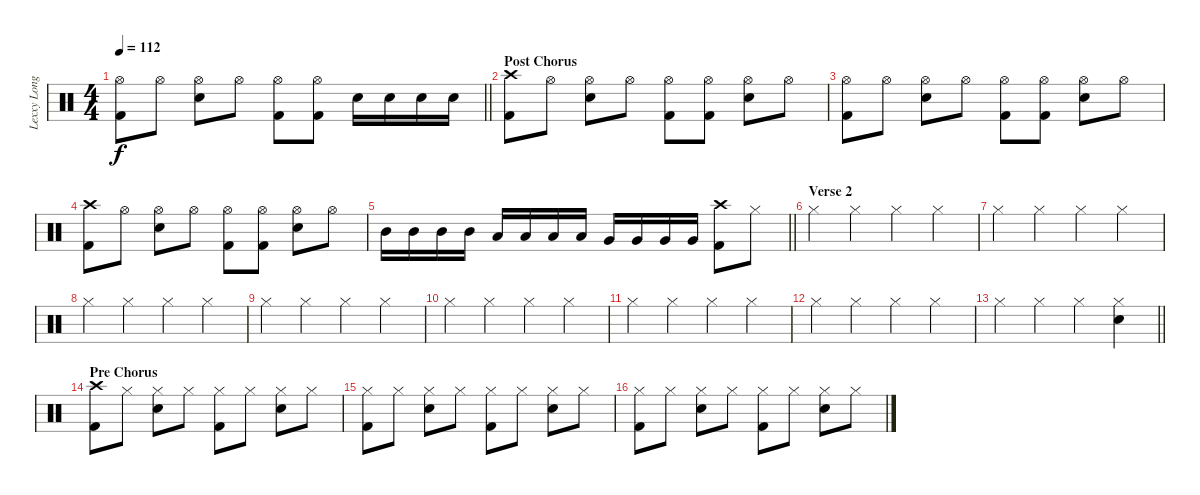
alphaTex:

\track ("Lexxy Longlegz (Chuto)" "Lexxy Long") {instrument percussion}
\staff {score}
\articulation defaults
\ts (4 4)
\tempo 112
\clef neutral
\barLineRight lightlight
\ks c
("Hi-Hat (open)" "Kick (hit) 2").8{dy f} "Hi-Hat (open)".8 ("Hi-Hat (open)" "Snare (hit) 2").8 "Hi-Hat (open)".8 ("Hi-Hat (open)" "Kick (hit) 2").8 ("Hi-Hat (open)" "Kick (hit) 2").8 "Snare (hit) 2".16 "Snare (hit) 2".16 "Snare (hit) 2".16 "Snare (hit) 2".16 |
\section ("" "Post Chorus")
("Crash high (hit)" "Kick (hit) 2").8 "Hi-Hat (open)".8 ("Hi-Hat (open)" "Snare (hit) 2").8 "Hi-Hat (open)".8 ("Hi-Hat (open)" "Kick (hit) 2").8 ("Hi-Hat (open)" "Kick (hit) 2").8 ("Hi-Hat (open)" "Snare (hit) 2").8 "Hi-Hat (open)".8 |
("Hi-Hat (open)" "Kick (hit) 2").8 "Hi-Hat (open)".8 ("Hi-Hat (open)" "Snare (hit) 2").8 "Hi-Hat (open)".8 ("Hi-Hat (open)" "Kick (hit) 2").8 ("Hi-Hat (open)" "Kick (hit) 2").8 ("Hi-Hat (open)" "Snare (hit) 2").8 "Hi-Hat (open)".8 |
("Crash high (hit)" "Kick (hit) 2").8 "Hi-Hat (open)".8 ("Hi-Hat (open)" "Snare (hit) 2").8 "Hi-Hat (open)".8 ("Hi-Hat (open)" "Kick (hit) 2").8 ("Hi-Hat (open)" "Kick (hit) 2").8 ("Hi-Hat (open)" "Snare (hit) 2").8 "Hi-Hat (open)".8 |
\barLineRight lightlight "Mid Tom (hit)".16 "Mid Tom (hit)".16 "Mid Tom (hit)".16 "Mid Tom (hit)".16 "Low Tom (hit)".16 "Low Tom (hit)".16 "Low Tom (hit)".16 "Low Tom (hit)".16 "Very Low Tom (hit)".16 "Very Low Tom (hit)".16 "Very Low Tom (hit)".16 "Very Low Tom (hit)".16
("Crash high (hit)" "Kick (hit) 2").8 "Hi-Hat (closed)".8 |
\section ("" "Verse 2")
"Hi-Hat (closed)".4 "Hi-Hat (closed)".4 "Hi-Hat (closed)".4 "Hi-Hat (closed)".4 |
"Hi-Hat (closed)".4 "Hi-Hat (closed)".4 "Hi-Hat (closed)".4 "Hi-Hat (closed)".4 |
"Hi-Hat (closed)".4 "Hi-Hat (closed)".4 "Hi-Hat (closed)".4 "Hi-Hat (closed)".4 |
"Hi-Hat (closed)".4 "Hi-Hat (closed)".4 "Hi-Hat (closed)".4 "Hi-Hat (closed)".4 |
"Hi-Hat (closed)".4 "Hi-Hat (closed)".4 "Hi-Hat (closed)".4 "Hi-Hat (closed)".4 |
"Hi-Hat (closed)".4 "Hi-Hat (closed)".4 "Hi-Hat (closed)".4 "Hi-Hat (closed)".4 |
"Hi-Hat (closed)".4 "Hi-Hat (closed)".4 "Hi-Hat (closed)".4 "Hi-Hat (closed)".4 |
\barLineRight lightlight "Hi-Hat (closed)".4 "Hi-Hat (closed)".4 "Hi-Hat (closed)".4
("Hi-Hat (closed)" "Snare (hit) 2").4 |
\section ("" "Pre Chorus")
("Crash high (hit)" "Kick (hit) 2").8 "Hi-Hat (closed)".8 ("Hi-Hat (closed)" "Snare (hit) 2").8 "Hi-Hat (closed)".8 ("Hi-Hat (closed)" "Kick (hit) 2").8 "Hi-Hat (closed)".8 ("Hi-Hat (closed)" "Snare (hit) 2").8 "Hi-Hat (closed)".8 |
("Hi-Hat (closed)" "Kick (hit) 2").8 "Hi-Hat (closed)".8 ("Hi-Hat (closed)" "Snare (hit) 2").8 "Hi-Hat (closed)".8 ("Hi-Hat (closed)" "Kick (hit) 2").8 "Hi-Hat (closed)".8 ("Hi-Hat (closed)" "Snare (hit) 2").8 "Hi-Hat (closed)".8 |
("Hi-Hat (closed)" "Kick (hit) 2").8 "Hi-Hat (closed)".8 ("Hi-Hat (closed)" "Snare (hit) 2").8 "Hi-Hat (closed)".8 ("Hi-Hat (closed)" "Kick (hit) 2").8 "Hi-Hat (closed)".8 ("Hi-Hat (closed)" "Snare (hit) 2").8 "Hi-Hat (closed)".8
